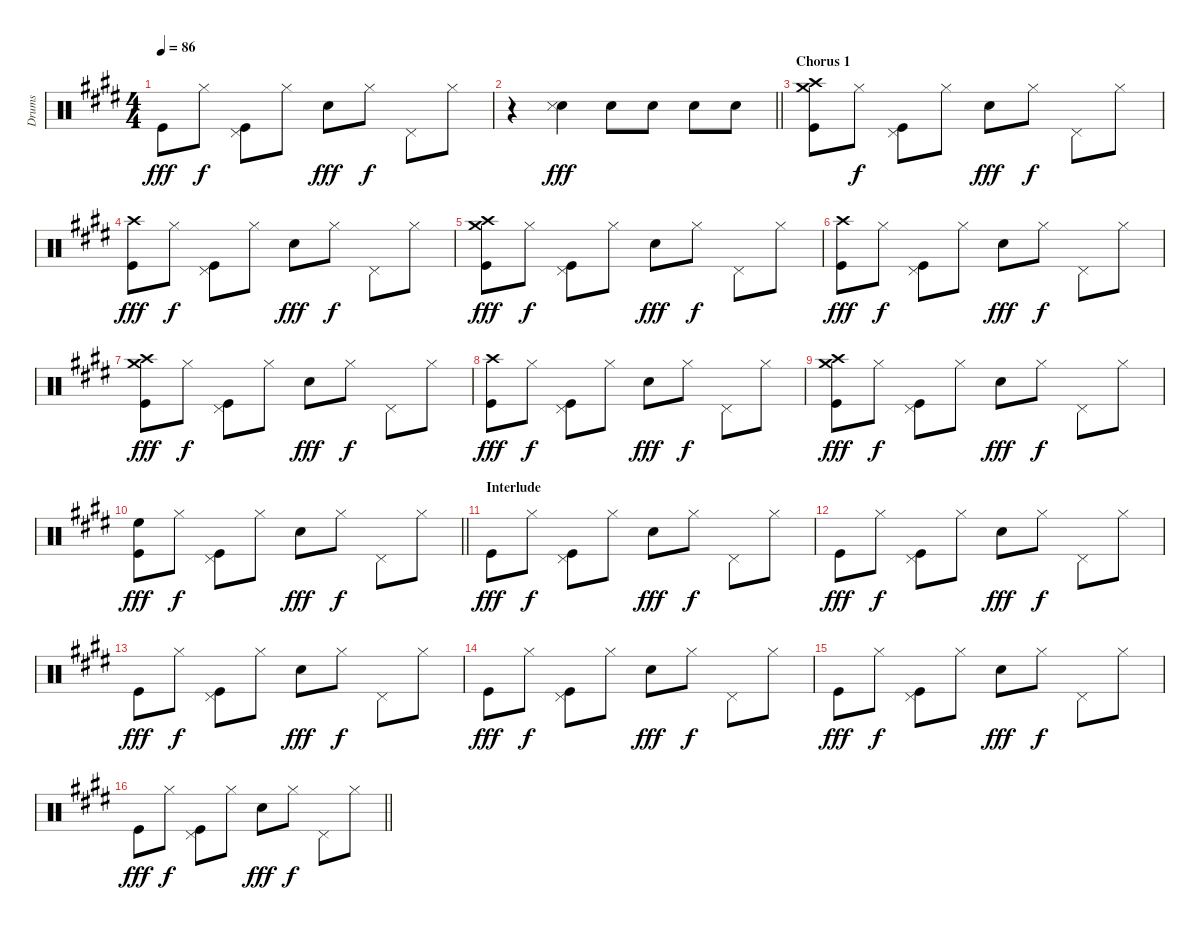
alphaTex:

\track ("Drums" "Drums") {instrument percussion}
\staff {score}
\articulation defaults
\ts (4 4)
\tempo 86
\clef neutral
\ks e "Kick (hit)".8{dy fff} "Hi-Hat (closed)".8{dy f}
("Kick (hit)" "Pedal Hi-Hat (hit)").8 "Hi-Hat (closed)".8 "Snare (hit) 2".8{dy fff} "Hi-Hat (closed)".8{dy f} "Pedal Hi-Hat (hit)".8 "Hi-Hat (closed)".8 |
\barLineRight lightlight
r.4 ("Snare (hit) 2" "Snare (side stick) 3").4{dy fff} "Snare (hit) 2".8 "Snare (hit) 2".8 "Snare (hit) 2".8 "Snare (hit) 2".8 |
\section ("" "Chorus 1")
("Kick (hit)" "Crash high (hit)" "Crash medium (hit)").8 "Hi-Hat (closed)".8{dy f} ("Kick (hit)" "Pedal Hi-Hat (hit)").8 "Hi-Hat (closed)".8 "Snare (hit) 2".8{dy fff} "Hi-Hat (closed)".8{dy f} "Pedal Hi-Hat (hit)".8 "Hi-Hat (closed)".8 |
("Kick (hit)" "Crash high (hit)").8{dy fff} "Hi-Hat (closed)".8{dy f} ("Kick (hit)" "Pedal Hi-Hat (hit)").8 "Hi-Hat (closed)".8 "Snare (hit) 2".8{dy fff} "Hi-Hat (closed)".8{dy f} "Pedal Hi-Hat (hit)".8 "Hi-Hat (closed)".8 |
("Kick (hit)" "Crash high (hit)" "Crash medium (hit)").8{dy fff} "Hi-Hat (closed)".8{dy f} ("Kick (hit)" "Pedal Hi-Hat (hit)").8 "Hi-Hat (closed)".8 "Snare (hit) 2".8{dy fff} "Hi-Hat (closed)".8{dy f} "Pedal Hi-Hat (hit)".8 "Hi-Hat (closed)".8 |
("Kick (hit)" "Crash high (hit)").8{dy fff} "Hi-Hat (closed)".8{dy f} ("Kick (hit)" "Pedal Hi-Hat (hit)").8 "Hi-Hat (closed)".8 "Snare (hit) 2".8{dy fff} "Hi-Hat (closed)".8{dy f} "Pedal Hi-Hat (hit)".8 "Hi-Hat (closed)".8 |
("Kick (hit)" "Crash high (hit)" "Crash medium (hit)").8{dy fff} "Hi-Hat (closed)".8{dy f} ("Kick (hit)" "Pedal Hi-Hat (hit)").8 "Hi-Hat (closed)".8 "Snare (hit) 2".8{dy fff} "Hi-Hat (closed)".8{dy f} "Pedal Hi-Hat (hit)".8 "Hi-Hat (closed)".8 |
("Kick (hit)" "Crash high (hit)").8{dy fff} "Hi-Hat (closed)".8{dy f} ("Kick (hit)" "Pedal Hi-Hat (hit)").8 "Hi-Hat (closed)".8 "Snare (hit) 2".8{dy fff} "Hi-Hat (closed)".8{dy f} "Pedal Hi-Hat (hit)".8 "Hi-Hat (closed)".8 |
("Kick (hit)" "Crash high (hit)" "Crash medium (hit)").8{dy fff} "Hi-Hat (closed)".8{dy f} ("Kick (hit)" "Pedal Hi-Hat (hit)").8 "Hi-Hat (closed)".8 "Snare (hit) 2".8{dy fff} "Hi-Hat (closed)".8{dy f} "Pedal Hi-Hat (hit)".8 "Hi-Hat (closed)".8 |
\barLineRight lightlight
("Kick (hit)" "High Floor Tom (hit)").8{dy fff} "Hi-Hat (closed)".8{dy f} ("Kick (hit)" "Pedal Hi-Hat (hit)").8 "Hi-Hat (closed)".8 "Snare (hit) 2".8{dy fff} "Hi-Hat (closed)".8{dy f} "Pedal Hi-Hat (hit)".8 "Hi-Hat (closed)".8 |
\section ("" "Interlude")
"Kick (hit)".8{dy fff} "Hi-Hat (closed)".8{dy f} ("Kick (hit)" "Pedal Hi-Hat (hit)").8 "Hi-Hat (closed)".8 "Snare (hit) 2".8{dy fff} "Hi-Hat (closed)".8{dy f} "Pedal Hi-Hat (hit)".8 "Hi-Hat (closed)".8 |
"Kick (hit)".8{dy fff} "Hi-Hat (closed)".8{dy f} ("Kick (hit)" "Pedal Hi-Hat (hit)").8 "Hi-Hat (closed)".8 "Snare (hit) 2".8{dy fff} "Hi-Hat (closed)".8{dy f} "Pedal Hi-Hat (hit)".8 "Hi-Hat (closed)".8 |
"Kick (hit)".8{dy fff} "Hi-Hat (closed)".8{dy f} ("Kick (hit)" "Pedal Hi-Hat (hit)").8 "Hi-Hat (closed)".8 "Snare (hit) 2".8{dy fff} "Hi-Hat (closed)".8{dy f} "Pedal Hi-Hat (hit)".8 "Hi-Hat (closed)".8 |
"Kick (hit)".8{dy fff} "Hi-Hat (closed)".8{dy f} ("Kick (hit)" "Pedal Hi-Hat (hit)").8 "Hi-Hat (closed)".8 "Snare (hit) 2".8{dy fff} "Hi-Hat (closed)".8{dy f} "Pedal Hi-Hat (hit)".8 "Hi-Hat (closed)".8 |
"Kick (hit)".8{dy fff} "Hi-Hat (closed)".8{dy f} ("Kick (hit)" "Pedal Hi-Hat (hit)").8 "Hi-Hat (closed)".8 "Snare (hit) 2".8{dy fff} "Hi-Hat (closed)".8{dy f} "Pedal Hi-Hat (hit)".8 "Hi-Hat (closed)".8 |
\barLineRight lightlight "Kick (hit)".8{dy fff} "Hi-Hat (closed)".8{dy f}
("Kick (hit)" "Pedal Hi-Hat (hit)").8 "Hi-Hat (closed)".8 "Snare (hit) 2".8{dy fff} "Hi-Hat (closed)".8{dy f} "Pedal Hi-Hat (hit)".8 "Hi-Hat (closed)".8
